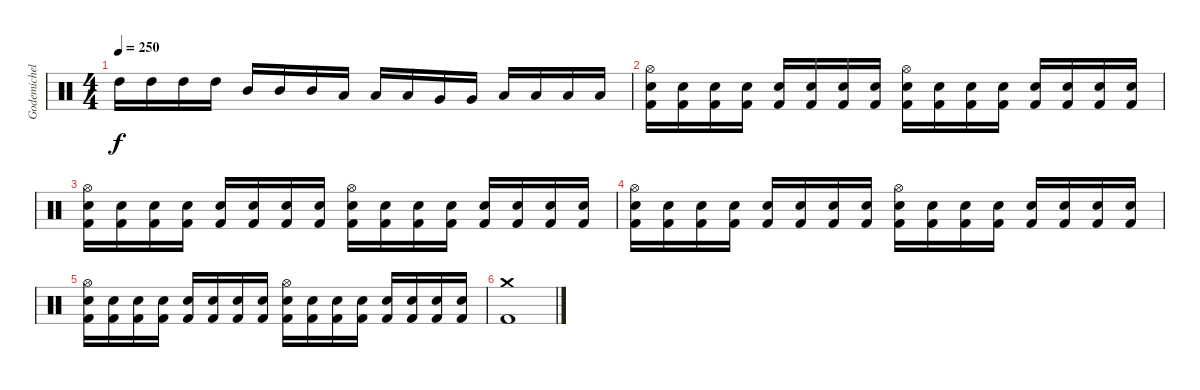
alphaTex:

\track ("Godemichel" "Godemichel") {instrument percussion}
\staff {score}
\articulation defaults
\ts (4 4)
\tempo 250
\clef neutral
\ks c "High Tom (hit)".16{dy f} "High Tom (hit)".16 "High Tom (hit)".16 "High Tom (hit)".16 "Mid Tom (hit)".16 "Mid Tom (hit)".16 "Mid Tom (hit)".16 "Low Tom (hit)".16 "Low Tom (hit)".16 "Low Tom (hit)".16 "Very Low Tom (hit)".16 "Very Low Tom (hit)".16 "Low Floor Tom (hit)".16 "Low Floor Tom (hit)".16 "Low Floor Tom (hit)".16 "Low Floor Tom (hit)".16
|
("Hi-Hat (open)" "Electric Snare (hit)" "Kick (hit) 2").16 ("Electric Snare (hit)" "Kick (hit) 2").16 ("Electric Snare (hit)" "Kick (hit) 2").16 ("Electric Snare (hit)" "Kick (hit) 2").16 ("Electric Snare (hit)" "Kick (hit) 2").16 ("Electric Snare (hit)" "Kick (hit) 2").16 ("Electric Snare (hit)" "Kick (hit) 2").16 ("Electric Snare (hit)" "Kick (hit) 2").16 ("Hi-Hat (open)" "Electric Snare (hit)" "Kick (hit) 2").16 ("Electric Snare (hit)" "Kick (hit) 2").16 ("Electric Snare (hit)" "Kick (hit) 2").16 ("Electric Snare (hit)" "Kick (hit) 2").16 ("Electric Snare (hit)" "Kick (hit) 2").16 ("Electric Snare (hit)" "Kick (hit) 2").16 ("Electric Snare (hit)" "Kick (hit) 2").16 ("Electric Snare (hit)" "Kick (hit) 2").16 |
("Hi-Hat (open)" "Electric Snare (hit)" "Kick (hit) 2").16 ("Electric Snare (hit)" "Kick (hit) 2").16 ("Electric Snare (hit)" "Kick (hit) 2").16 ("Electric Snare (hit)" "Kick (hit) 2").16 ("Electric Snare (hit)" "Kick (hit) 2").16 ("Electric Snare (hit)" "Kick (hit) 2").16 ("Electric Snare (hit)" "Kick (hit) 2").16 ("Electric Snare (hit)" "Kick (hit) 2").16 ("Hi-Hat (open)" "Electric Snare (hit)" "Kick (hit) 2").16 ("Electric Snare (hit)" "Kick (hit) 2").16 ("Electric Snare (hit)" "Kick (hit) 2").16 ("Electric Snare (hit)" "Kick (hit) 2").16 ("Electric Snare (hit)" "Kick (hit) 2").16 ("Electric Snare (hit)" "Kick (hit) 2").16 ("Electric Snare (hit)" "Kick (hit) 2").16 ("Electric Snare (hit)" "Kick (hit) 2").16 |
("Hi-Hat (open)" "Electric Snare (hit)" "Kick (hit) 2").16 ("Electric Snare (hit)" "Kick (hit) 2").16 ("Electric Snare (hit)" "Kick (hit) 2").16 ("Electric Snare (hit)" "Kick (hit) 2").16 ("Electric Snare (hit)" "Kick (hit) 2").16 ("Electric Snare (hit)" "Kick (hit) 2").16 ("Electric Snare (hit)" "Kick (hit) 2").16 ("Electric Snare (hit)" "Kick (hit) 2").16 ("Hi-Hat (open)" "Electric Snare (hit)" "Kick (hit) 2").16 ("Electric Snare (hit)" "Kick (hit) 2").16 ("Electric Snare (hit)" "Kick (hit) 2").16 ("Electric Snare (hit)" "Kick (hit) 2").16 ("Electric Snare (hit)" "Kick (hit) 2").16 ("Electric Snare (hit)" "Kick (hit) 2").16 ("Electric Snare (hit)" "Kick (hit) 2").16 ("Electric Snare (hit)" "Kick (hit) 2").16 |
("Hi-Hat (open)" "Electric Snare (hit)" "Kick (hit) 2").16 ("Electric Snare (hit)" "Kick (hit) 2").16 ("Electric Snare (hit)" "Kick (hit) 2").16 ("Electric Snare (hit)" "Kick (hit) 2").16 ("Electric Snare (hit)" "Kick (hit) 2").16 ("Electric Snare (hit)" "Kick (hit) 2").16 ("Electric Snare (hit)" "Kick (hit) 2").16 ("Electric Snare (hit)" "Kick (hit) 2").16 ("Hi-Hat (open)" "Electric Snare (hit)" "Kick (hit) 2").16 ("Electric Snare (hit)" "Kick (hit) 2").16 ("Electric Snare (hit)" "Kick (hit) 2").16 ("Electric Snare (hit)" "Kick (hit) 2").16 ("Electric Snare (hit)" "Kick (hit) 2").16 ("Electric Snare (hit)" "Kick (hit) 2").16 ("Electric Snare (hit)" "Kick (hit) 2").16 ("Electric Snare (hit)" "Kick (hit) 2").16 |
("Crash medium (hit)" "Kick (hit) 2").1
